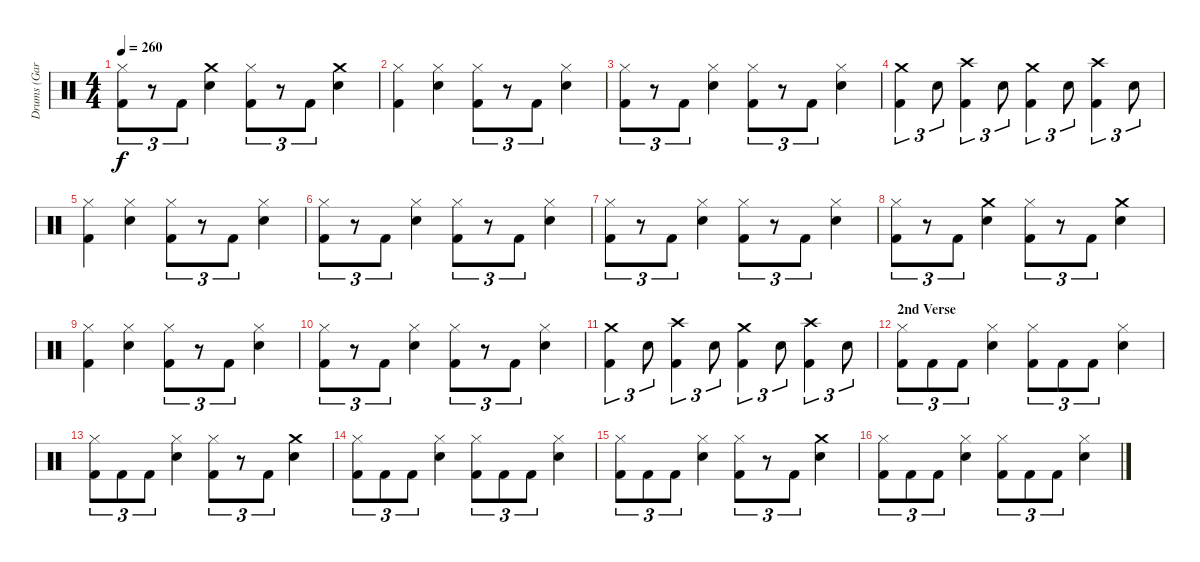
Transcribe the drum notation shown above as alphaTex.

\track ("Drums (Gar Samuelson)" "Drums (Gar") {instrument percussion}
\staff {score}
\articulation defaults
\ts (4 4)
\tempo 260
\clef neutral
\ks c
("Hi-Hat (closed)" "Kick (hit) 2").8{tu (3 2) dy f} r.8{tu (3 2)} "Kick (hit) 2".8{tu (3 2)} ("Crash medium (hit)" "Snare (hit) 2").4 ("Hi-Hat (closed)" "Kick (hit) 2").8{tu (3 2)} r.8{tu (3 2)} "Kick (hit) 2".8{tu (3 2)} ("Crash medium (hit)" "Snare (hit) 2").4 |
("Hi-Hat (closed)" "Kick (hit) 2").4 ("Hi-Hat (closed)" "Snare (hit) 2").4 ("Hi-Hat (closed)" "Kick (hit) 2").8{tu (3 2)} r.8{tu (3 2)} "Kick (hit) 2".8{tu (3 2)} ("Hi-Hat (closed)" "Snare (hit) 2").4 |
("Hi-Hat (closed)" "Kick (hit) 2").8{tu (3 2)} r.8{tu (3 2)} "Kick (hit) 2".8{tu (3 2)} ("Hi-Hat (closed)" "Snare (hit) 2").4 ("Hi-Hat (closed)" "Kick (hit) 2").8{tu (3 2)} r.8{tu (3 2)} "Kick (hit) 2".8{tu (3 2)} ("Hi-Hat (closed)" "Snare (hit) 2").4 |
("Crash medium (hit)" "Kick (hit) 2").4{tu (3 2)} "Snare (hit) 2".8{tu (3 2)} ("Crash high (hit)" "Kick (hit) 2").4{tu (3 2)} "Snare (hit) 2".8{tu (3 2)} ("Crash medium (hit)" "Kick (hit) 2").4{tu (3 2)} "Snare (hit) 2".8{tu (3 2)} ("Crash high (hit)" "Kick (hit) 2").4{tu (3 2)} "Snare (hit) 2".8{tu (3 2)} |
("Hi-Hat (closed)" "Kick (hit) 2").4 ("Hi-Hat (closed)" "Snare (hit) 2").4 ("Hi-Hat (closed)" "Kick (hit) 2").8{tu (3 2)} r.8{tu (3 2)} "Kick (hit) 2".8{tu (3 2)} ("Hi-Hat (closed)" "Snare (hit) 2").4 |
("Hi-Hat (closed)" "Kick (hit) 2").8{tu (3 2)} r.8{tu (3 2)} "Kick (hit) 2".8{tu (3 2)} ("Hi-Hat (closed)" "Snare (hit) 2").4 ("Hi-Hat (closed)" "Kick (hit) 2").8{tu (3 2)} r.8{tu (3 2)} "Kick (hit) 2".8{tu (3 2)} ("Hi-Hat (closed)" "Snare (hit) 2").4 |
("Hi-Hat (closed)" "Kick (hit) 2").8{tu (3 2)} r.8{tu (3 2)} "Kick (hit) 2".8{tu (3 2)} ("Hi-Hat (closed)" "Snare (hit) 2").4 ("Hi-Hat (closed)" "Kick (hit) 2").8{tu (3 2)} r.8{tu (3 2)} "Kick (hit) 2".8{tu (3 2)} ("Hi-Hat (closed)" "Snare (hit) 2").4 |
("Hi-Hat (closed)" "Kick (hit) 2").8{tu (3 2)} r.8{tu (3 2)} "Kick (hit) 2".8{tu (3 2)} ("Crash medium (hit)" "Snare (hit) 2").4 ("Hi-Hat (closed)" "Kick (hit) 2").8{tu (3 2)} r.8{tu (3 2)} "Kick (hit) 2".8{tu (3 2)} ("Crash medium (hit)" "Snare (hit) 2").4 |
("Hi-Hat (closed)" "Kick (hit) 2").4 ("Hi-Hat (closed)" "Snare (hit) 2").4 ("Hi-Hat (closed)" "Kick (hit) 2").8{tu (3 2)} r.8{tu (3 2)} "Kick (hit) 2".8{tu (3 2)} ("Hi-Hat (closed)" "Snare (hit) 2").4 |
("Hi-Hat (closed)" "Kick (hit) 2").8{tu (3 2)} r.8{tu (3 2)} "Kick (hit) 2".8{tu (3 2)} ("Hi-Hat (closed)" "Snare (hit) 2").4 ("Hi-Hat (closed)" "Kick (hit) 2").8{tu (3 2)} r.8{tu (3 2)} "Kick (hit) 2".8{tu (3 2)} ("Hi-Hat (closed)" "Snare (hit) 2").4 |
("Crash medium (hit)" "Kick (hit) 2").4{tu (3 2)} "Snare (hit) 2".8{tu (3 2)} ("Crash high (hit)" "Kick (hit) 2").4{tu (3 2)} "Snare (hit) 2".8{tu (3 2)} ("Crash medium (hit)" "Kick (hit) 2").4{tu (3 2)} "Snare (hit) 2".8{tu (3 2)} ("Crash high (hit)" "Kick (hit) 2").4{tu (3 2)} "Snare (hit) 2".8{tu (3 2)} |
\section ("" "2nd Verse")
("Hi-Hat (closed)" "Kick (hit) 2").8{tu (3 2)} "Kick (hit) 2".8{tu (3 2)} "Kick (hit) 2".8{tu (3 2)} ("Hi-Hat (closed)" "Snare (hit) 2").4 ("Hi-Hat (closed)" "Kick (hit) 2").8{tu (3 2)} "Kick (hit) 2".8{tu (3 2)} "Kick (hit) 2".8{tu (3 2)} ("Hi-Hat (closed)" "Snare (hit) 2").4 |
("Hi-Hat (closed)" "Kick (hit) 2").8{tu (3 2)} "Kick (hit) 2".8{tu (3 2)} "Kick (hit) 2".8{tu (3 2)} ("Hi-Hat (closed)" "Snare (hit) 2").4 ("Hi-Hat (closed)" "Kick (hit) 2").8{tu (3 2)} r.8{tu (3 2)} "Kick (hit) 2".8{tu (3 2)} ("Crash medium (hit)" "Snare (hit) 2").4 |
("Hi-Hat (closed)" "Kick (hit) 2").8{tu (3 2)} "Kick (hit) 2".8{tu (3 2)} "Kick (hit) 2".8{tu (3 2)} ("Hi-Hat (closed)" "Snare (hit) 2").4 ("Hi-Hat (closed)" "Kick (hit) 2").8{tu (3 2)} "Kick (hit) 2".8{tu (3 2)} "Kick (hit) 2".8{tu (3 2)} ("Hi-Hat (closed)" "Snare (hit) 2").4 |
("Hi-Hat (closed)" "Kick (hit) 2").8{tu (3 2)} "Kick (hit) 2".8{tu (3 2)} "Kick (hit) 2".8{tu (3 2)} ("Hi-Hat (closed)" "Snare (hit) 2").4 ("Hi-Hat (closed)" "Kick (hit) 2").8{tu (3 2)} r.8{tu (3 2)} "Kick (hit) 2".8{tu (3 2)} ("Crash medium (hit)" "Snare (hit) 2").4 |
("Hi-Hat (closed)" "Kick (hit) 2").8{tu (3 2)} "Kick (hit) 2".8{tu (3 2)} "Kick (hit) 2".8{tu (3 2)} ("Hi-Hat (closed)" "Snare (hit) 2").4 ("Hi-Hat (closed)" "Kick (hit) 2").8{tu (3 2)} "Kick (hit) 2".8{tu (3 2)} "Kick (hit) 2".8{tu (3 2)} ("Hi-Hat (closed)" "Snare (hit) 2").4
